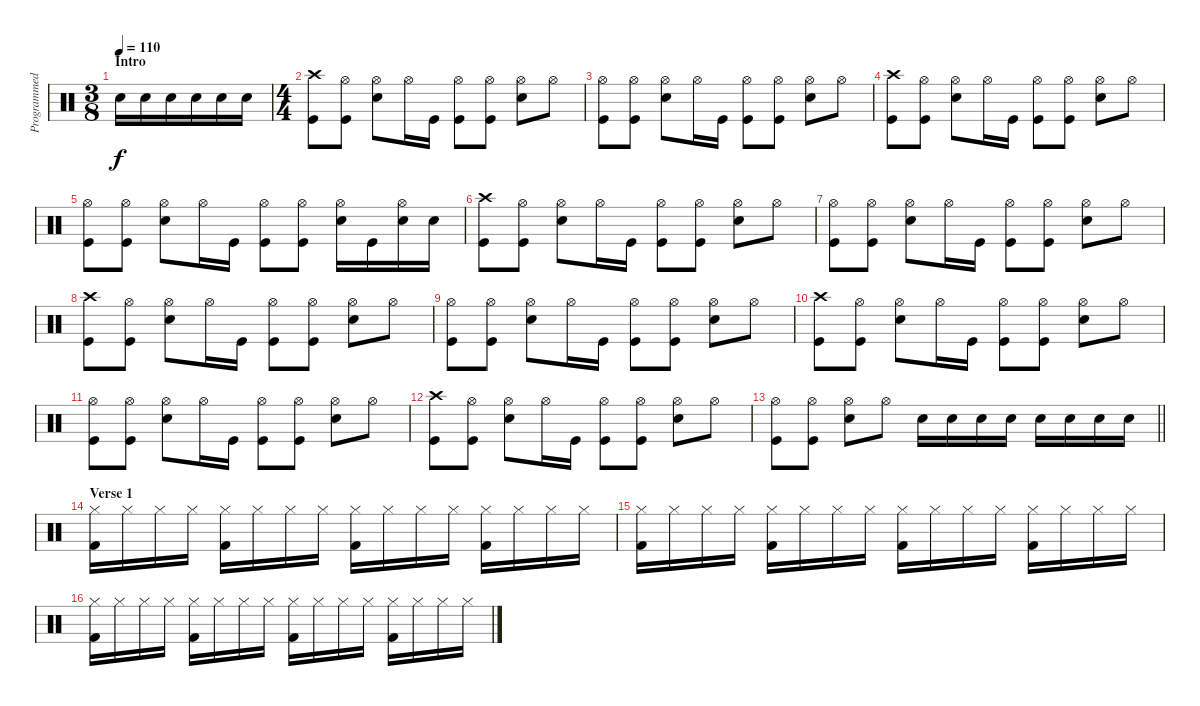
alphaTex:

\track ("Programmed Drums" "Programmed") {instrument percussion}
\staff {score}
\articulation defaults
\ts (3 8)
\section ("" "Intro")
\tempo 110
\clef neutral
\ks c "Electric Snare (hit)".16{dy f} "Electric Snare (hit)".16 "Electric Snare (hit)".16 "Electric Snare (hit)".16 "Electric Snare (hit)".16 "Electric Snare (hit)".16
|
\ts (4 4)
("Crash high (hit)" "Kick (hit)").8 ("Hi-Hat (open)" "Kick (hit)").8 ("Hi-Hat (open)" "Electric Snare (hit)").8 "Hi-Hat (open)".16 "Kick (hit)".16 ("Hi-Hat (open)" "Kick (hit)").8 ("Hi-Hat (open)" "Kick (hit)").8 ("Hi-Hat (open)" "Electric Snare (hit)").8 "Hi-Hat (open)".8 |
("Hi-Hat (open)" "Kick (hit)").8 ("Hi-Hat (open)" "Kick (hit)").8 ("Hi-Hat (open)" "Electric Snare (hit)").8 "Hi-Hat (open)".16 "Kick (hit)".16 ("Hi-Hat (open)" "Kick (hit)").8 ("Hi-Hat (open)" "Kick (hit)").8 ("Hi-Hat (open)" "Electric Snare (hit)").8 "Hi-Hat (open)".8 |
("Crash high (hit)" "Kick (hit)").8 ("Hi-Hat (open)" "Kick (hit)").8 ("Hi-Hat (open)" "Electric Snare (hit)").8 "Hi-Hat (open)".16 "Kick (hit)".16 ("Hi-Hat (open)" "Kick (hit)").8 ("Hi-Hat (open)" "Kick (hit)").8 ("Hi-Hat (open)" "Electric Snare (hit)").8 "Hi-Hat (open)".8 |
("Hi-Hat (open)" "Kick (hit)").8 ("Hi-Hat (open)" "Kick (hit)").8 ("Hi-Hat (open)" "Electric Snare (hit)").8 "Hi-Hat (open)".16 "Kick (hit)".16 ("Hi-Hat (open)" "Kick (hit)").8 ("Hi-Hat (open)" "Kick (hit)").8 ("Hi-Hat (open)" "Electric Snare (hit)").16 "Kick (hit)".16 ("Hi-Hat (open)" "Electric Snare (hit)").16 "Electric Snare (hit)".16 |
("Crash high (hit)" "Kick (hit)").8 ("Hi-Hat (open)" "Kick (hit)").8 ("Hi-Hat (open)" "Electric Snare (hit)").8 "Hi-Hat (open)".16 "Kick (hit)".16 ("Hi-Hat (open)" "Kick (hit)").8 ("Hi-Hat (open)" "Kick (hit)").8 ("Hi-Hat (open)" "Electric Snare (hit)").8 "Hi-Hat (open)".8 |
("Hi-Hat (open)" "Kick (hit)").8 ("Hi-Hat (open)" "Kick (hit)").8 ("Hi-Hat (open)" "Electric Snare (hit)").8 "Hi-Hat (open)".16 "Kick (hit)".16 ("Hi-Hat (open)" "Kick (hit)").8 ("Hi-Hat (open)" "Kick (hit)").8 ("Hi-Hat (open)" "Electric Snare (hit)").8 "Hi-Hat (open)".8 |
("Crash high (hit)" "Kick (hit)").8 ("Hi-Hat (open)" "Kick (hit)").8 ("Hi-Hat (open)" "Electric Snare (hit)").8 "Hi-Hat (open)".16 "Kick (hit)".16 ("Hi-Hat (open)" "Kick (hit)").8 ("Hi-Hat (open)" "Kick (hit)").8 ("Hi-Hat (open)" "Electric Snare (hit)").8 "Hi-Hat (open)".8 |
("Hi-Hat (open)" "Kick (hit)").8 ("Hi-Hat (open)" "Kick (hit)").8 ("Hi-Hat (open)" "Electric Snare (hit)").8 "Hi-Hat (open)".16 "Kick (hit)".16 ("Hi-Hat (open)" "Kick (hit)").8 ("Hi-Hat (open)" "Kick (hit)").8 ("Hi-Hat (open)" "Electric Snare (hit)").8 "Hi-Hat (open)".8 |
("Crash high (hit)" "Kick (hit)").8 ("Hi-Hat (open)" "Kick (hit)").8 ("Hi-Hat (open)" "Electric Snare (hit)").8 "Hi-Hat (open)".16 "Kick (hit)".16 ("Hi-Hat (open)" "Kick (hit)").8 ("Hi-Hat (open)" "Kick (hit)").8 ("Hi-Hat (open)" "Electric Snare (hit)").8 "Hi-Hat (open)".8 |
("Hi-Hat (open)" "Kick (hit)").8 ("Hi-Hat (open)" "Kick (hit)").8 ("Hi-Hat (open)" "Electric Snare (hit)").8 "Hi-Hat (open)".16 "Kick (hit)".16 ("Hi-Hat (open)" "Kick (hit)").8 ("Hi-Hat (open)" "Kick (hit)").8 ("Hi-Hat (open)" "Electric Snare (hit)").8 "Hi-Hat (open)".8 |
("Crash high (hit)" "Kick (hit)").8 ("Hi-Hat (open)" "Kick (hit)").8 ("Hi-Hat (open)" "Electric Snare (hit)").8 "Hi-Hat (open)".16 "Kick (hit)".16 ("Hi-Hat (open)" "Kick (hit)").8 ("Hi-Hat (open)" "Kick (hit)").8 ("Hi-Hat (open)" "Electric Snare (hit)").8 "Hi-Hat (open)".8 |
\barLineRight lightlight
("Hi-Hat (open)" "Kick (hit)").8 ("Hi-Hat (open)" "Kick (hit)").8 ("Hi-Hat (open)" "Electric Snare (hit)").8 "Hi-Hat (open)".8 "Electric Snare (hit)".16 "Electric Snare (hit)".16 "Electric Snare (hit)".16 "Electric Snare (hit)".16 "Electric Snare (hit)".16 "Electric Snare (hit)".16 "Electric Snare (hit)".16 "Electric Snare (hit)".16 |
\section ("" "Verse 1")
("Hi-Hat (closed)" "Kick (hit) 2").16{volume 10} "Hi-Hat (closed)".16 "Hi-Hat (closed)".16 "Hi-Hat (closed)".16 ("Hi-Hat (closed)" "Kick (hit) 2").16 "Hi-Hat (closed)".16 "Hi-Hat (closed)".16 "Hi-Hat (closed)".16 ("Hi-Hat (closed)" "Kick (hit) 2").16 "Hi-Hat (closed)".16 "Hi-Hat (closed)".16 "Hi-Hat (closed)".16 ("Hi-Hat (closed)" "Kick (hit) 2").16 "Hi-Hat (closed)".16 "Hi-Hat (closed)".16 "Hi-Hat (closed)".16 |
("Hi-Hat (closed)" "Kick (hit) 2").16 "Hi-Hat (closed)".16 "Hi-Hat (closed)".16 "Hi-Hat (closed)".16 ("Hi-Hat (closed)" "Kick (hit) 2").16 "Hi-Hat (closed)".16 "Hi-Hat (closed)".16 "Hi-Hat (closed)".16 ("Hi-Hat (closed)" "Kick (hit) 2").16 "Hi-Hat (closed)".16 "Hi-Hat (closed)".16 "Hi-Hat (closed)".16 ("Hi-Hat (closed)" "Kick (hit) 2").16 "Hi-Hat (closed)".16 "Hi-Hat (closed)".16 "Hi-Hat (closed)".16 |
("Hi-Hat (closed)" "Kick (hit) 2").16 "Hi-Hat (closed)".16 "Hi-Hat (closed)".16 "Hi-Hat (closed)".16 ("Hi-Hat (closed)" "Kick (hit) 2").16 "Hi-Hat (closed)".16 "Hi-Hat (closed)".16 "Hi-Hat (closed)".16 ("Hi-Hat (closed)" "Kick (hit) 2").16 "Hi-Hat (closed)".16 "Hi-Hat (closed)".16 "Hi-Hat (closed)".16 ("Hi-Hat (closed)" "Kick (hit) 2").16 "Hi-Hat (closed)".16 "Hi-Hat (closed)".16 "Hi-Hat (closed)".16
